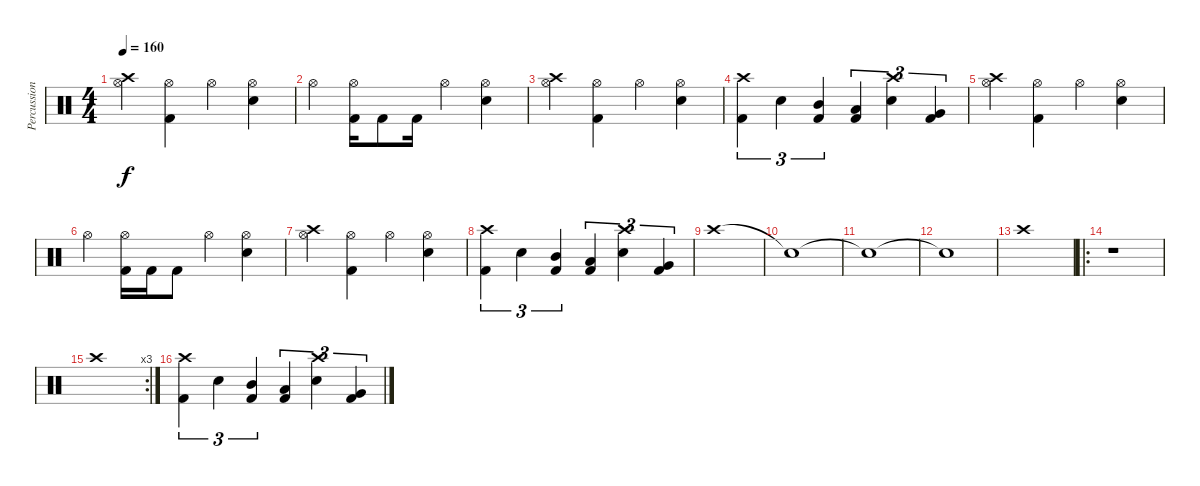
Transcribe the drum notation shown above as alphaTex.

\track ("Percussions" "Percussion") {instrument percussion}
\staff {score}
\articulation defaults
\ts (4 4)
\tempo 160
\clef neutral
\ks c
("Crash high (hit)" "Hi-Hat (open)").4{dy f} ("Kick (hit) 2" "Hi-Hat (open)").4 "Hi-Hat (open)".4 ("Hi-Hat (open)" "Electric Snare (hit)").4 |
"Hi-Hat (open)".4 ("Kick (hit) 2" "Hi-Hat (open)").16 "Kick (hit) 2".8 "Kick (hit) 2".16 "Hi-Hat (open)".4 ("Electric Snare (hit)" "Hi-Hat (open)").4 |
("Crash high (hit)" "Hi-Hat (open)").4 ("Kick (hit) 2" "Hi-Hat (open)").4 "Hi-Hat (open)".4 ("Hi-Hat (open)" "Electric Snare (hit)").4 |
("Kick (hit) 2" "Crash high (hit)").4{tu (3 2)} "Electric Snare (hit)".4{tu (3 2)} ("Kick (hit) 2" "Mid Tom (hit)").4{tu (3 2)} ("Kick (hit) 2" "Low Tom (hit)").4{tu (3 2)} ("Crash high (hit)" "Electric Snare (hit)").4{tu (3 2)} ("Kick (hit) 2" "Very Low Tom (hit)").4{tu (3 2)} |
("Crash high (hit)" "Hi-Hat (open)").4 ("Kick (hit) 2" "Hi-Hat (open)").4 "Hi-Hat (open)".4 ("Hi-Hat (open)" "Electric Snare (hit)").4 |
"Hi-Hat (open)".4 ("Kick (hit) 2" "Hi-Hat (open)").16 "Kick (hit) 2".16 "Kick (hit) 2".8 "Hi-Hat (open)".4 ("Hi-Hat (open)" "Electric Snare (hit)").4 |
("Crash high (hit)" "Hi-Hat (open)").4 ("Kick (hit) 2" "Hi-Hat (open)").4 "Hi-Hat (open)".4 ("Hi-Hat (open)" "Electric Snare (hit)").4 |
("Kick (hit) 2" "Crash high (hit)").4{tu (3 2)} "Electric Snare (hit)".4{tu (3 2)} ("Kick (hit) 2" "Mid Tom (hit)").4{tu (3 2)} ("Kick (hit) 2" "Low Tom (hit)").4{tu (3 2)} ("Crash high (hit)" "Electric Snare (hit)").4{tu (3 2)} ("Kick (hit) 2" "Very Low Tom (hit)").4{tu (3 2)} |
"Crash high (hit)".1 |
"Snare (hit)"{t}.1 |
"Snare (hit)"{t}.1 |
"Snare (hit)"{t}.1 |
"Crash high (hit)".1 |
\ro
r.1 |
\rc 3 "Crash high (hit)".1
|
("Kick (hit) 2" "Crash high (hit)").4{tu (3 2)} "Electric Snare (hit)".4{tu (3 2)} ("Kick (hit) 2" "Mid Tom (hit)").4{tu (3 2)} ("Kick (hit) 2" "Low Tom (hit)").4{tu (3 2)} ("Crash high (hit)" "Electric Snare (hit)").4{tu (3 2)} ("Kick (hit) 2" "Very Low Tom (hit)").4{tu (3 2)}
